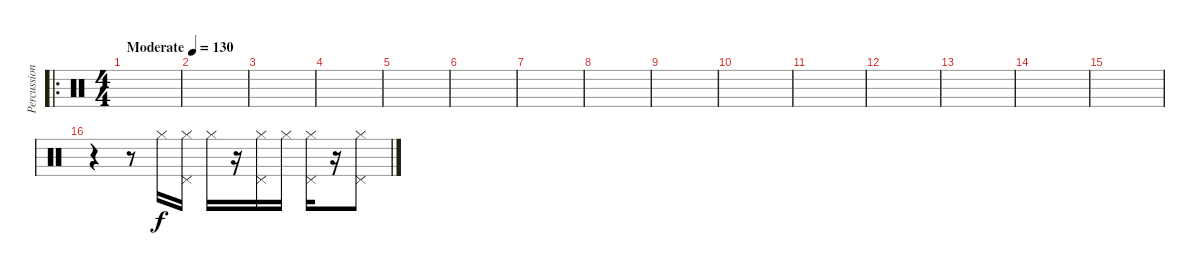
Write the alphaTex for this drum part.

\track ("Percussion" "Percussion") {instrument percussion}
\staff {score}
\articulation defaults
\ro
\ts (4 4)
\tempo (130 "Moderate")
\clef neutral
\ks c
|
|
|
|
|
|
|
|
|
|
|
|
|
|
|
r.4 r.8 "Hi-Hat (closed)".16 ("Hi-Hat (closed)" "Pedal Hi-Hat (hit)").16 "Hi-Hat (closed)".16 r.16 ("Hi-Hat (closed)" "Pedal Hi-Hat (hit)").16 "Hi-Hat (closed)".16 ("Hi-Hat (closed)" "Pedal Hi-Hat (hit)").16 r.16 ("Hi-Hat (closed)" "Pedal Hi-Hat (hit)").8
